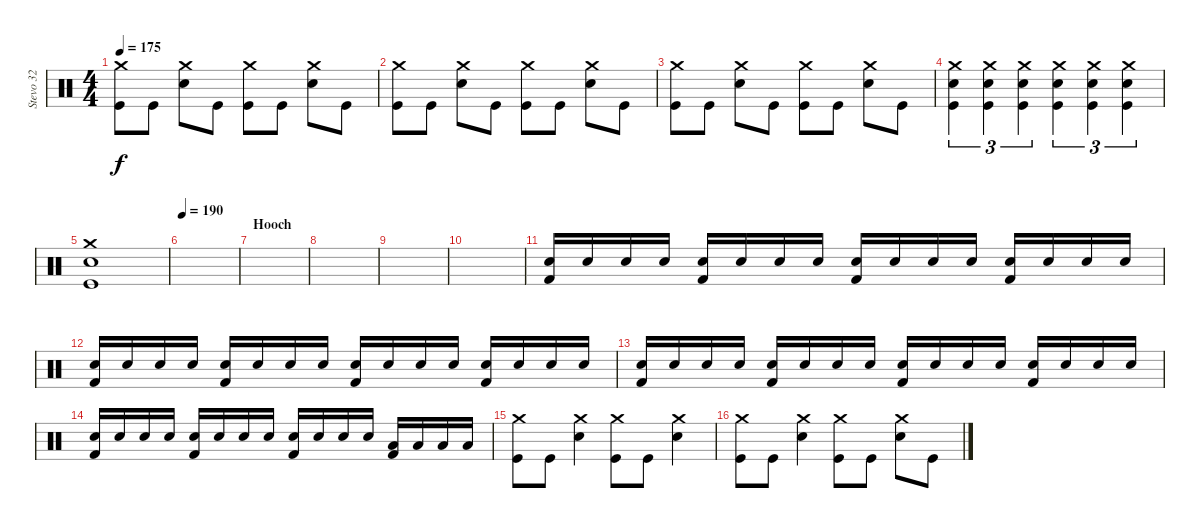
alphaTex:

\track ("Stevo 32" "Stevo 32") {instrument percussion}
\staff {score}
\articulation defaults
\ts (4 4)
\tempo 175
\clef neutral
\ks c
("Crash medium (hit)" "Kick (hit)").8{dy f} "Kick (hit)".8 ("Crash medium (hit)" "Snare (hit) 2").8 "Kick (hit)".8 ("Crash medium (hit)" "Kick (hit)").8 "Kick (hit)".8 ("Crash medium (hit)" "Snare (hit) 2").8 "Kick (hit)".8 |
("Crash medium (hit)" "Kick (hit)").8 "Kick (hit)".8 ("Crash medium (hit)" "Snare (hit) 2").8 "Kick (hit)".8 ("Crash medium (hit)" "Kick (hit)").8 "Kick (hit)".8 ("Crash medium (hit)" "Snare (hit) 2").8 "Kick (hit)".8 |
("Crash medium (hit)" "Kick (hit)").8 "Kick (hit)".8 ("Crash medium (hit)" "Snare (hit) 2").8 "Kick (hit)".8 ("Crash medium (hit)" "Kick (hit)").8 "Kick (hit)".8 ("Crash medium (hit)" "Snare (hit) 2").8 "Kick (hit)".8 |
("Crash medium (hit)" "Snare (hit) 2" "Kick (hit)").4{tu (3 2)} ("Crash medium (hit)" "Snare (hit) 2" "Kick (hit)").4{tu (3 2)} ("Crash medium (hit)" "Snare (hit) 2" "Kick (hit)").4{tu (3 2)} ("Crash medium (hit)" "Snare (hit) 2" "Kick (hit)").4{tu (3 2)} ("Crash medium (hit)" "Snare (hit) 2" "Kick (hit)").4{tu (3 2)} ("Crash medium (hit)" "Snare (hit) 2" "Kick (hit)").4{tu (3 2)} |
("Crash medium (hit)" "Snare (hit) 2" "Kick (hit)").1 |
\tempo 190
|
\section ("" "Hooch")
|
|
|
|
("Snare (hit) 2" "Kick (hit) 2").16 "Snare (hit) 2".16 "Snare (hit) 2".16 "Snare (hit) 2".16 ("Snare (hit) 2" "Kick (hit) 2").16 "Snare (hit) 2".16 "Snare (hit) 2".16 "Snare (hit) 2".16 ("Snare (hit) 2" "Kick (hit) 2").16 "Snare (hit) 2".16 "Snare (hit) 2".16 "Snare (hit) 2".16 ("Snare (hit) 2" "Kick (hit) 2").16 "Snare (hit) 2".16 "Snare (hit) 2".16 "Snare (hit) 2".16 |
("Snare (hit) 2" "Kick (hit) 2").16 "Snare (hit) 2".16 "Snare (hit) 2".16 "Snare (hit) 2".16 ("Snare (hit) 2" "Kick (hit) 2").16 "Snare (hit) 2".16 "Snare (hit) 2".16 "Snare (hit) 2".16 ("Snare (hit) 2" "Kick (hit) 2").16 "Snare (hit) 2".16 "Snare (hit) 2".16 "Snare (hit) 2".16 ("Snare (hit) 2" "Kick (hit) 2").16 "Snare (hit) 2".16 "Snare (hit) 2".16 "Snare (hit) 2".16 |
("Snare (hit) 2" "Kick (hit) 2").16 "Snare (hit) 2".16 "Snare (hit) 2".16 "Snare (hit) 2".16 ("Snare (hit) 2" "Kick (hit) 2").16 "Snare (hit) 2".16 "Snare (hit) 2".16 "Snare (hit) 2".16 ("Snare (hit) 2" "Kick (hit) 2").16 "Snare (hit) 2".16 "Snare (hit) 2".16 "Snare (hit) 2".16 ("Snare (hit) 2" "Kick (hit) 2").16 "Snare (hit) 2".16 "Snare (hit) 2".16 "Snare (hit) 2".16 |
("Snare (hit) 2" "Kick (hit) 2").16 "Snare (hit) 2".16 "Snare (hit) 2".16 "Snare (hit) 2".16 ("Snare (hit) 2" "Kick (hit) 2").16 "Snare (hit) 2".16 "Snare (hit) 2".16 "Snare (hit) 2".16 ("Snare (hit) 2" "Kick (hit) 2").16 "Snare (hit) 2".16 "Snare (hit) 2".16 "Snare (hit) 2".16 ("Low Tom (hit)" "Kick (hit) 2").16 "Low Tom (hit)".16 "Low Tom (hit)".16 "Low Tom (hit)".16 |
("Crash medium (hit)" "Kick (hit)").8 "Kick (hit)".8 ("Crash medium (hit)" "Snare (hit) 2").4 ("Crash medium (hit)" "Kick (hit)").8 "Kick (hit)".8 ("Crash medium (hit)" "Snare (hit) 2").4 |
("Crash medium (hit)" "Kick (hit)").8 "Kick (hit)".8 ("Crash medium (hit)" "Snare (hit) 2").4 ("Crash medium (hit)" "Kick (hit)").8 "Kick (hit)".8 ("Crash medium (hit)" "Snare (hit) 2").8 "Kick (hit)".8
